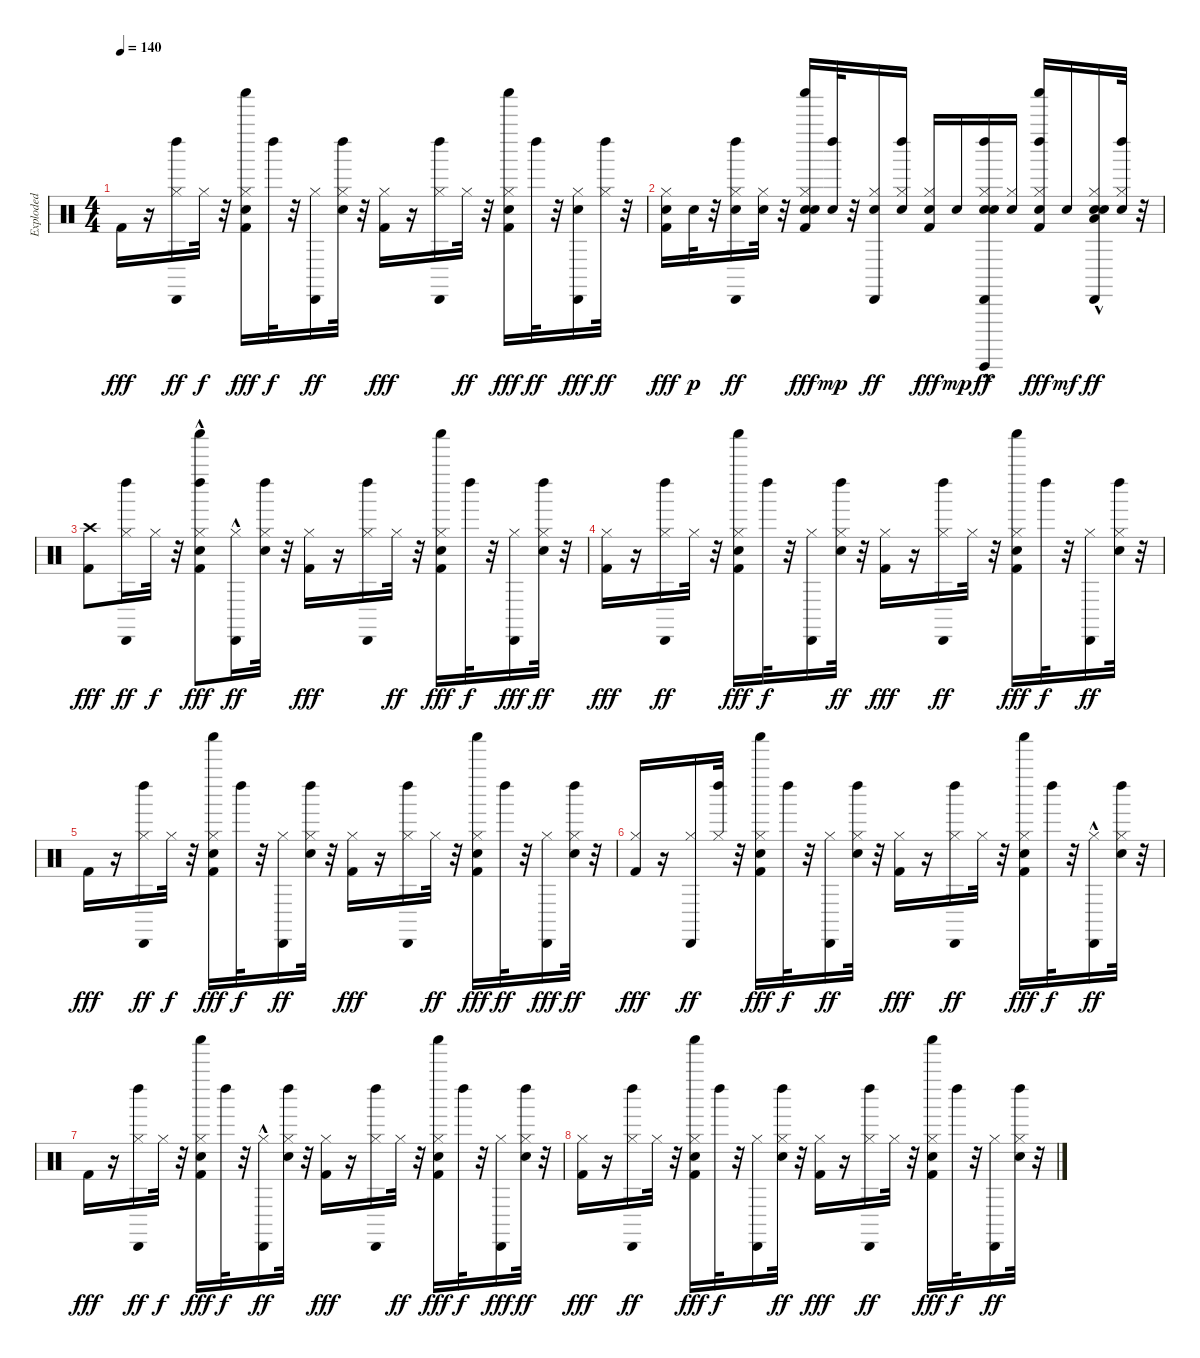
\track ("Exploded" "Exploded") {instrument percussion}
\staff {score}
\articulation defaults
\ts (4 4)
\tempo 140
\clef neutral
\ks c "Kick (hit) 2".16{dy fff}
r.16 ("Left Maraca (hit)" "Cabasa (hit)" "Hi-Hat (closed)").16{dy ff} "Hi-Hat (closed)".32{dy f} r.32 ("Hand Clap (hit)" "Shaker (hit)" "Hi-Hat (closed)" "Kick (hit) 2").16{dy fff} "Left Maraca (hit)".32{dy f} r.32 ("Cabasa (hit)" "Hi-Hat (closed)").16{dy ff} ("Snare (hit) 2" "Left Maraca (hit)" "Hi-Hat (closed)").32 r.32 ("Hi-Hat (closed)" "Kick (hit) 2").16{dy fff} r.16 ("Left Maraca (hit)" "Cabasa (hit)" "Hi-Hat (closed)").16 "Hi-Hat (closed)".32{dy ff} r.32 ("Hand Clap (hit)" "Shaker (hit)" "Hi-Hat (closed)" "Kick (hit) 2").16{dy fff} "Left Maraca (hit)".32{dy ff} r.32 ("Snare (hit) 2" "Cabasa (hit)" "Hi-Hat (closed)").16{dy fff} ("Left Maraca (hit)" "Hi-Hat (closed)").32{dy ff} r.32 |
("Snare (hit) 2" "Hi-Hat (closed)" "Kick (hit) 2").16{dy fff} "Snare (hit) 2".32{dy p} r.32 ("Left Maraca (hit)" "Snare (hit) 2" "Cabasa (hit)" "Hi-Hat (closed)").16{dy ff} ("Snare (hit) 2" "Hi-Hat (closed)").32 r.32 ("Snare (hit) 2" "Hand Clap (hit)" "Shaker (hit)" "Hi-Hat (closed)" "Kick (hit) 2").16{dy fff} ("Left Maraca (hit)" "Snare (hit) 2").32{dy mp} r.32 ("Snare (hit) 2" "Cabasa (hit)" "Hi-Hat (closed)").16{dy ff} ("Left Maraca (hit)" "Snare (hit) 2" "Hi-Hat (closed)").16 ("Snare (hit) 2" "Hi-Hat (closed)" "Kick (hit) 2").16{dy fff} "Snare (hit) 2".16{dy mp} ("Left Maraca (hit)" "Snare (hit) 2" "Hand Clap (hit)" "Guiro (hit)"{hac} "Cabasa (hit)" "Hi-Hat (closed)").16{dy ff} ("Snare (hit) 2" "Hi-Hat (closed)").16 ("Left Maraca (hit)" "Snare (hit) 2" "Shaker (hit)" "Hi-Hat (closed)" "Kick (hit) 2").16{dy fff} "Snare (hit) 2".16{dy mf} ("Low Floor Tom (hit)" "Snare (hit) 2" "Hand Clap (hit)" "Cabasa (hit)"{hac} "Hi-Hat (closed)").16{dy ff} ("Left Maraca (hit)" "Snare (hit) 2" "Hi-Hat (closed)").32 r.32 |
("Crash high (hit)" "Kick (hit) 2").8{dy fff} ("Left Maraca (hit)" "Cabasa (hit)" "Hi-Hat (closed)").16{dy ff} "Hi-Hat (closed)".32{dy f} r.32 ("Left Maraca (hit)" "Hand Clap (hit)"{hac} "Shaker (hit)" "Hi-Hat (closed)" "Kick (hit) 2").8{dy fff} ("Cabasa (hit)"{hac} "Hi-Hat (closed)").16{dy ff} ("Snare (hit) 2" "Left Maraca (hit)" "Hi-Hat (closed)").32 r.32 ("Hi-Hat (closed)" "Kick (hit) 2").16{dy fff} r.16 ("Left Maraca (hit)" "Cabasa (hit)" "Hi-Hat (closed)").16 "Hi-Hat (closed)".32{dy ff} r.32 ("Hand Clap (hit)" "Shaker (hit)" "Hi-Hat (closed)" "Kick (hit) 2").16{dy fff} "Left Maraca (hit)".32{dy f} r.32 ("Cabasa (hit)" "Hi-Hat (closed)").16{dy fff} ("Snare (hit) 2" "Left Maraca (hit)" "Hi-Hat (closed)").32{dy ff} r.32 |
("Hi-Hat (closed)" "Kick (hit) 2").16{dy fff} r.16 ("Left Maraca (hit)" "Cabasa (hit)" "Hi-Hat (closed)").16{dy ff} "Hi-Hat (closed)".32 r.32 ("Hand Clap (hit)" "Shaker (hit)" "Hi-Hat (closed)" "Kick (hit) 2").16{dy fff} "Left Maraca (hit)".32{dy f} r.32 ("Cabasa (hit)" "Hi-Hat (closed)").16 ("Snare (hit) 2" "Left Maraca (hit)" "Hi-Hat (closed)").32{dy ff} r.32 ("Hi-Hat (closed)" "Kick (hit) 2").16{dy fff} r.16 ("Left Maraca (hit)" "Cabasa (hit)" "Hi-Hat (closed)").16{dy ff} "Hi-Hat (closed)".32 r.32 ("Hand Clap (hit)" "Shaker (hit)" "Hi-Hat (closed)" "Kick (hit) 2").16{dy fff} "Left Maraca (hit)".32{dy f} r.32 ("Cabasa (hit)" "Hi-Hat (closed)").16{dy ff} ("Snare (hit) 2" "Left Maraca (hit)" "Hi-Hat (closed)").32 r.32 |
"Kick (hit) 2".16{dy fff} r.16 ("Left Maraca (hit)" "Cabasa (hit)" "Hi-Hat (closed)").16{dy ff} "Hi-Hat (closed)".32{dy f} r.32 ("Hand Clap (hit)" "Shaker (hit)" "Hi-Hat (closed)" "Kick (hit) 2").16{dy fff} "Left Maraca (hit)".32{dy f} r.32 ("Cabasa (hit)" "Hi-Hat (closed)").16{dy ff} ("Snare (hit) 2" "Left Maraca (hit)" "Hi-Hat (closed)").32 r.32 ("Hi-Hat (closed)" "Kick (hit) 2").16{dy fff} r.16 ("Left Maraca (hit)" "Cabasa (hit)" "Hi-Hat (closed)").16 "Hi-Hat (closed)".32{dy ff} r.32 ("Hand Clap (hit)" "Shaker (hit)" "Hi-Hat (closed)" "Kick (hit) 2").16{dy fff} "Left Maraca (hit)".32{dy ff} r.32 ("Cabasa (hit)" "Hi-Hat (closed)").16{dy fff} ("Snare (hit) 2" "Left Maraca (hit)" "Hi-Hat (closed)").32{dy ff} r.32 |
("Hi-Hat (closed)" "Kick (hit) 2").16{dy fff} r.16 ("Cabasa (hit)" "Hi-Hat (closed)").16{dy ff} ("Left Maraca (hit)" "Hi-Hat (closed)").32 r.32 ("Hand Clap (hit)" "Shaker (hit)" "Hi-Hat (closed)" "Kick (hit) 2").16{dy fff} "Left Maraca (hit)".32{dy f} r.32 ("Cabasa (hit)" "Hi-Hat (closed)").16{dy ff} ("Snare (hit) 2" "Left Maraca (hit)" "Hi-Hat (closed)").32 r.32 ("Hi-Hat (closed)" "Kick (hit) 2").16{dy fff} r.16 ("Left Maraca (hit)" "Cabasa (hit)" "Hi-Hat (closed)").16{dy ff} "Hi-Hat (closed)".32 r.32 ("Hand Clap (hit)" "Shaker (hit)" "Hi-Hat (closed)" "Kick (hit) 2").16{dy fff} "Left Maraca (hit)".32{dy f} r.32 ("Cabasa (hit)"{hac} "Hi-Hat (closed)").16{dy ff} ("Snare (hit) 2" "Left Maraca (hit)" "Hi-Hat (closed)").32 r.32 |
"Kick (hit) 2".16{dy fff} r.16 ("Left Maraca (hit)" "Cabasa (hit)" "Hi-Hat (closed)").16{dy ff} "Hi-Hat (closed)".32{dy f} r.32 ("Hand Clap (hit)" "Shaker (hit)" "Hi-Hat (closed)" "Kick (hit) 2").16{dy fff} "Left Maraca (hit)".32{dy f} r.32 ("Cabasa (hit)"{hac} "Hi-Hat (closed)").16{dy ff} ("Snare (hit) 2" "Left Maraca (hit)" "Hi-Hat (closed)").32 r.32 ("Hi-Hat (closed)" "Kick (hit) 2").16{dy fff} r.16 ("Left Maraca (hit)" "Cabasa (hit)" "Hi-Hat (closed)").16 "Hi-Hat (closed)".32{dy ff} r.32 ("Hand Clap (hit)" "Shaker (hit)" "Hi-Hat (closed)" "Kick (hit) 2").16{dy fff} "Left Maraca (hit)".32{dy f} r.32 ("Cabasa (hit)" "Hi-Hat (closed)").16{dy fff} ("Snare (hit) 2" "Left Maraca (hit)" "Hi-Hat (closed)").32{dy ff} r.32 |
("Hi-Hat (closed)" "Kick (hit) 2").16{dy fff} r.16 ("Left Maraca (hit)" "Cabasa (hit)" "Hi-Hat (closed)").16{dy ff} "Hi-Hat (closed)".32 r.32 ("Hand Clap (hit)" "Shaker (hit)" "Hi-Hat (closed)" "Kick (hit) 2").16{dy fff} "Left Maraca (hit)".32{dy f} r.32 ("Cabasa (hit)" "Hi-Hat (closed)").16 ("Snare (hit) 2" "Left Maraca (hit)" "Hi-Hat (closed)").32{dy ff} r.32 ("Hi-Hat (closed)" "Kick (hit) 2").16{dy fff} r.16 ("Left Maraca (hit)" "Cabasa (hit)" "Hi-Hat (closed)").16{dy ff} "Hi-Hat (closed)".32 r.32 ("Hand Clap (hit)" "Shaker (hit)" "Hi-Hat (closed)" "Kick (hit) 2").16{dy fff} "Left Maraca (hit)".32{dy f} r.32 ("Cabasa (hit)" "Hi-Hat (closed)").16{dy ff} ("Snare (hit) 2" "Left Maraca (hit)" "Hi-Hat (closed)").32 r.32
